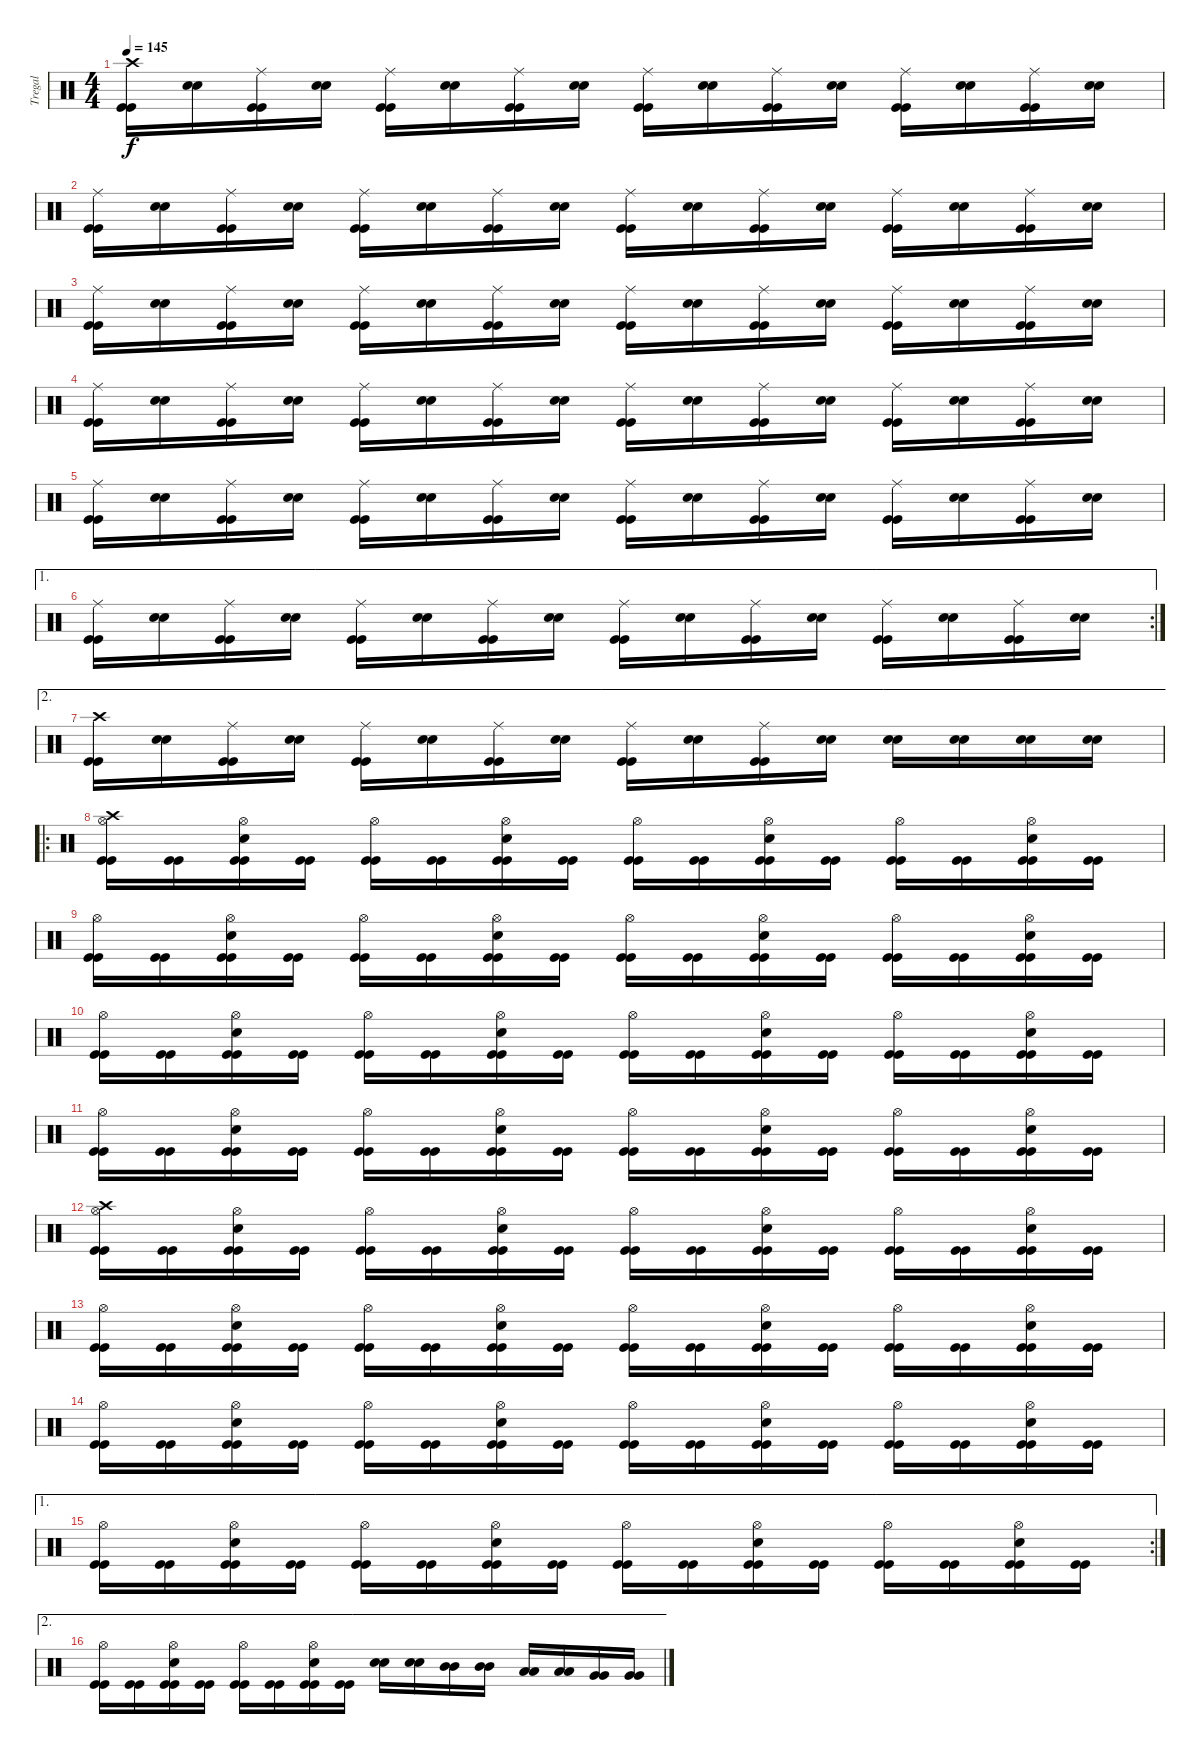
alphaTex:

\track ("Tregal" "Tregal") {instrument percussion}
\staff {score}
\articulation defaults
\ts (4 4)
\tempo 145
\clef neutral
\ks c
("Kick (hit)" "Kick (hit)" "Crash high (hit)").16{dy f} ("Snare (hit) 2" "Snare (hit) 2").16 ("Kick (hit)" "Kick (hit)" "Ride (middle)").16 ("Snare (hit) 2" "Snare (hit) 2").16 ("Kick (hit)" "Kick (hit)" "Ride (middle)").16 ("Snare (hit) 2" "Snare (hit) 2").16 ("Kick (hit)" "Kick (hit)" "Ride (middle)").16 ("Snare (hit) 2" "Snare (hit) 2").16 ("Kick (hit)" "Kick (hit)" "Ride (middle)").16 ("Snare (hit) 2" "Snare (hit) 2").16 ("Kick (hit)" "Kick (hit)" "Ride (middle)").16 ("Snare (hit) 2" "Snare (hit) 2").16 ("Kick (hit)" "Kick (hit)" "Ride (middle)").16 ("Snare (hit) 2" "Snare (hit) 2").16 ("Kick (hit)" "Kick (hit)" "Ride (middle)").16 ("Snare (hit) 2" "Snare (hit) 2").16 |
("Kick (hit)" "Kick (hit)" "Ride (middle)").16 ("Snare (hit) 2" "Snare (hit) 2").16 ("Kick (hit)" "Kick (hit)" "Ride (middle)").16 ("Snare (hit) 2" "Snare (hit) 2").16 ("Kick (hit)" "Kick (hit)" "Ride (middle)").16 ("Snare (hit) 2" "Snare (hit) 2").16 ("Kick (hit)" "Kick (hit)" "Ride (middle)").16 ("Snare (hit) 2" "Snare (hit) 2").16 ("Kick (hit)" "Kick (hit)" "Ride (middle)").16 ("Snare (hit) 2" "Snare (hit) 2").16 ("Kick (hit)" "Kick (hit)" "Ride (middle)").16 ("Snare (hit) 2" "Snare (hit) 2").16 ("Kick (hit)" "Kick (hit)" "Ride (middle)").16 ("Snare (hit) 2" "Snare (hit) 2").16 ("Kick (hit)" "Kick (hit)" "Ride (middle)").16 ("Snare (hit) 2" "Snare (hit) 2").16 |
("Kick (hit)" "Kick (hit)" "Ride (middle)").16 ("Snare (hit) 2" "Snare (hit) 2").16 ("Kick (hit)" "Kick (hit)" "Ride (middle)").16 ("Snare (hit) 2" "Snare (hit) 2").16 ("Kick (hit)" "Kick (hit)" "Ride (middle)").16 ("Snare (hit) 2" "Snare (hit) 2").16 ("Kick (hit)" "Kick (hit)" "Ride (middle)").16 ("Snare (hit) 2" "Snare (hit) 2").16 ("Kick (hit)" "Kick (hit)" "Ride (middle)").16 ("Snare (hit) 2" "Snare (hit) 2").16 ("Kick (hit)" "Kick (hit)" "Ride (middle)").16 ("Snare (hit) 2" "Snare (hit) 2").16 ("Kick (hit)" "Kick (hit)" "Ride (middle)").16 ("Snare (hit) 2" "Snare (hit) 2").16 ("Kick (hit)" "Kick (hit)" "Ride (middle)").16 ("Snare (hit) 2" "Snare (hit) 2").16 |
("Kick (hit)" "Kick (hit)" "Ride (middle)").16 ("Snare (hit) 2" "Snare (hit) 2").16 ("Kick (hit)" "Kick (hit)" "Ride (middle)").16 ("Snare (hit) 2" "Snare (hit) 2").16 ("Kick (hit)" "Kick (hit)" "Ride (middle)").16 ("Snare (hit) 2" "Snare (hit) 2").16 ("Kick (hit)" "Kick (hit)" "Ride (middle)").16 ("Snare (hit) 2" "Snare (hit) 2").16 ("Kick (hit)" "Kick (hit)" "Ride (middle)").16 ("Snare (hit) 2" "Snare (hit) 2").16 ("Kick (hit)" "Kick (hit)" "Ride (middle)").16 ("Snare (hit) 2" "Snare (hit) 2").16 ("Kick (hit)" "Kick (hit)" "Ride (middle)").16 ("Snare (hit) 2" "Snare (hit) 2").16 ("Kick (hit)" "Kick (hit)" "Ride (middle)").16 ("Snare (hit) 2" "Snare (hit) 2").16 |
("Kick (hit)" "Kick (hit)" "Ride (middle)").16 ("Snare (hit) 2" "Snare (hit) 2").16 ("Kick (hit)" "Kick (hit)" "Ride (middle)").16 ("Snare (hit) 2" "Snare (hit) 2").16 ("Kick (hit)" "Kick (hit)" "Ride (middle)").16 ("Snare (hit) 2" "Snare (hit) 2").16 ("Kick (hit)" "Kick (hit)" "Ride (middle)").16 ("Snare (hit) 2" "Snare (hit) 2").16 ("Kick (hit)" "Kick (hit)" "Ride (middle)").16 ("Snare (hit) 2" "Snare (hit) 2").16 ("Kick (hit)" "Kick (hit)" "Ride (middle)").16 ("Snare (hit) 2" "Snare (hit) 2").16 ("Kick (hit)" "Kick (hit)" "Ride (middle)").16 ("Snare (hit) 2" "Snare (hit) 2").16 ("Kick (hit)" "Kick (hit)" "Ride (middle)").16 ("Snare (hit) 2" "Snare (hit) 2").16 |
\ae 1
\rc 2
("Kick (hit)" "Kick (hit)" "Ride (middle)").16 ("Snare (hit) 2" "Snare (hit) 2").16 ("Kick (hit)" "Kick (hit)" "Ride (middle)").16 ("Snare (hit) 2" "Snare (hit) 2").16 ("Kick (hit)" "Kick (hit)" "Ride (middle)").16 ("Snare (hit) 2" "Snare (hit) 2").16 ("Kick (hit)" "Kick (hit)" "Ride (middle)").16 ("Snare (hit) 2" "Snare (hit) 2").16 ("Kick (hit)" "Kick (hit)" "Ride (middle)").16 ("Snare (hit) 2" "Snare (hit) 2").16 ("Kick (hit)" "Kick (hit)" "Ride (middle)").16 ("Snare (hit) 2" "Snare (hit) 2").16 ("Kick (hit)" "Kick (hit)" "Ride (middle)").16 ("Snare (hit) 2" "Snare (hit) 2").16 ("Kick (hit)" "Kick (hit)" "Ride (middle)").16 ("Snare (hit) 2" "Snare (hit) 2").16 |
\ae 2
("Kick (hit)" "Kick (hit)" "Crash high (hit)").16 ("Snare (hit) 2" "Snare (hit) 2").16 ("Kick (hit)" "Kick (hit)" "Ride (middle)").16 ("Snare (hit) 2" "Snare (hit) 2").16 ("Kick (hit)" "Kick (hit)" "Ride (middle)").16 ("Snare (hit) 2" "Snare (hit) 2").16 ("Kick (hit)" "Kick (hit)" "Ride (middle)").16 ("Snare (hit) 2" "Snare (hit) 2").16 ("Kick (hit)" "Kick (hit)" "Ride (middle)").16 ("Snare (hit) 2" "Snare (hit) 2").16 ("Kick (hit)" "Kick (hit)" "Ride (middle)").16 ("Snare (hit) 2" "Snare (hit) 2").16 ("Snare (hit) 2" "Snare (hit) 2").16 ("Snare (hit) 2" "Snare (hit) 2").16 ("Snare (hit) 2" "Snare (hit) 2").16 ("Snare (hit) 2" "Snare (hit) 2").16 |
\ro
("Kick (hit)" "Kick (hit)" "Crash high (hit)" "Hi-Hat (open)").16 ("Kick (hit)" "Kick (hit)").16 ("Kick (hit)" "Kick (hit)" "Hi-Hat (open)" "Snare (hit) 2").16 ("Kick (hit)" "Kick (hit)").16 ("Kick (hit)" "Kick (hit)" "Hi-Hat (open)").16 ("Kick (hit)" "Kick (hit)").16 ("Kick (hit)" "Kick (hit)" "Hi-Hat (open)" "Snare (hit) 2").16 ("Kick (hit)" "Kick (hit)").16 ("Kick (hit)" "Kick (hit)" "Hi-Hat (open)").16 ("Kick (hit)" "Kick (hit)").16 ("Kick (hit)" "Kick (hit)" "Hi-Hat (open)" "Snare (hit) 2").16 ("Kick (hit)" "Kick (hit)").16 ("Kick (hit)" "Kick (hit)" "Hi-Hat (open)").16 ("Kick (hit)" "Kick (hit)").16 ("Kick (hit)" "Kick (hit)" "Hi-Hat (open)" "Snare (hit) 2").16 ("Kick (hit)" "Kick (hit)").16 |
("Kick (hit)" "Kick (hit)" "Hi-Hat (open)").16 ("Kick (hit)" "Kick (hit)").16 ("Kick (hit)" "Kick (hit)" "Hi-Hat (open)" "Snare (hit) 2").16 ("Kick (hit)" "Kick (hit)").16 ("Kick (hit)" "Kick (hit)" "Hi-Hat (open)").16 ("Kick (hit)" "Kick (hit)").16 ("Kick (hit)" "Kick (hit)" "Hi-Hat (open)" "Snare (hit) 2").16 ("Kick (hit)" "Kick (hit)").16 ("Kick (hit)" "Kick (hit)" "Hi-Hat (open)").16 ("Kick (hit)" "Kick (hit)").16 ("Kick (hit)" "Kick (hit)" "Hi-Hat (open)" "Snare (hit) 2").16 ("Kick (hit)" "Kick (hit)").16 ("Kick (hit)" "Kick (hit)" "Hi-Hat (open)").16 ("Kick (hit)" "Kick (hit)").16 ("Kick (hit)" "Kick (hit)" "Hi-Hat (open)" "Snare (hit) 2").16 ("Kick (hit)" "Kick (hit)").16 |
("Kick (hit)" "Kick (hit)" "Hi-Hat (open)").16 ("Kick (hit)" "Kick (hit)").16 ("Kick (hit)" "Kick (hit)" "Hi-Hat (open)" "Snare (hit) 2").16 ("Kick (hit)" "Kick (hit)").16 ("Kick (hit)" "Kick (hit)" "Hi-Hat (open)").16 ("Kick (hit)" "Kick (hit)").16 ("Kick (hit)" "Kick (hit)" "Hi-Hat (open)" "Snare (hit) 2").16 ("Kick (hit)" "Kick (hit)").16 ("Kick (hit)" "Kick (hit)" "Hi-Hat (open)").16 ("Kick (hit)" "Kick (hit)").16 ("Kick (hit)" "Kick (hit)" "Hi-Hat (open)" "Snare (hit) 2").16 ("Kick (hit)" "Kick (hit)").16 ("Kick (hit)" "Kick (hit)" "Hi-Hat (open)").16 ("Kick (hit)" "Kick (hit)").16 ("Kick (hit)" "Kick (hit)" "Hi-Hat (open)" "Snare (hit) 2").16 ("Kick (hit)" "Kick (hit)").16 |
("Kick (hit)" "Kick (hit)" "Hi-Hat (open)").16 ("Kick (hit)" "Kick (hit)").16 ("Kick (hit)" "Kick (hit)" "Hi-Hat (open)" "Snare (hit) 2").16 ("Kick (hit)" "Kick (hit)").16 ("Kick (hit)" "Kick (hit)" "Hi-Hat (open)").16 ("Kick (hit)" "Kick (hit)").16 ("Kick (hit)" "Kick (hit)" "Hi-Hat (open)" "Snare (hit) 2").16 ("Kick (hit)" "Kick (hit)").16 ("Kick (hit)" "Kick (hit)" "Hi-Hat (open)").16 ("Kick (hit)" "Kick (hit)").16 ("Kick (hit)" "Kick (hit)" "Hi-Hat (open)" "Snare (hit) 2").16 ("Kick (hit)" "Kick (hit)").16 ("Kick (hit)" "Kick (hit)" "Hi-Hat (open)").16 ("Kick (hit)" "Kick (hit)").16 ("Kick (hit)" "Kick (hit)" "Hi-Hat (open)" "Snare (hit) 2").16 ("Kick (hit)" "Kick (hit)").16 |
("Kick (hit)" "Kick (hit)" "Hi-Hat (open)" "Crash high (hit)").16 ("Kick (hit)" "Kick (hit)").16 ("Kick (hit)" "Kick (hit)" "Hi-Hat (open)" "Snare (hit) 2").16 ("Kick (hit)" "Kick (hit)").16 ("Kick (hit)" "Kick (hit)" "Hi-Hat (open)").16 ("Kick (hit)" "Kick (hit)").16 ("Kick (hit)" "Kick (hit)" "Hi-Hat (open)" "Snare (hit) 2").16 ("Kick (hit)" "Kick (hit)").16 ("Kick (hit)" "Kick (hit)" "Hi-Hat (open)").16 ("Kick (hit)" "Kick (hit)").16 ("Kick (hit)" "Kick (hit)" "Hi-Hat (open)" "Snare (hit) 2").16 ("Kick (hit)" "Kick (hit)").16 ("Kick (hit)" "Kick (hit)" "Hi-Hat (open)").16 ("Kick (hit)" "Kick (hit)").16 ("Kick (hit)" "Kick (hit)" "Hi-Hat (open)" "Snare (hit) 2").16 ("Kick (hit)" "Kick (hit)").16 |
("Kick (hit)" "Kick (hit)" "Hi-Hat (open)").16 ("Kick (hit)" "Kick (hit)").16 ("Kick (hit)" "Kick (hit)" "Hi-Hat (open)" "Snare (hit) 2").16 ("Kick (hit)" "Kick (hit)").16 ("Kick (hit)" "Kick (hit)" "Hi-Hat (open)").16 ("Kick (hit)" "Kick (hit)").16 ("Kick (hit)" "Kick (hit)" "Hi-Hat (open)" "Snare (hit) 2").16 ("Kick (hit)" "Kick (hit)").16 ("Kick (hit)" "Kick (hit)" "Hi-Hat (open)").16 ("Kick (hit)" "Kick (hit)").16 ("Kick (hit)" "Kick (hit)" "Hi-Hat (open)" "Snare (hit) 2").16 ("Kick (hit)" "Kick (hit)").16 ("Kick (hit)" "Kick (hit)" "Hi-Hat (open)").16 ("Kick (hit)" "Kick (hit)").16 ("Kick (hit)" "Kick (hit)" "Hi-Hat (open)" "Snare (hit) 2").16 ("Kick (hit)" "Kick (hit)").16 |
("Kick (hit)" "Kick (hit)" "Hi-Hat (open)").16 ("Kick (hit)" "Kick (hit)").16 ("Kick (hit)" "Kick (hit)" "Hi-Hat (open)" "Snare (hit) 2").16 ("Kick (hit)" "Kick (hit)").16 ("Kick (hit)" "Kick (hit)" "Hi-Hat (open)").16 ("Kick (hit)" "Kick (hit)").16 ("Kick (hit)" "Kick (hit)" "Hi-Hat (open)" "Snare (hit) 2").16 ("Kick (hit)" "Kick (hit)").16 ("Kick (hit)" "Kick (hit)" "Hi-Hat (open)").16 ("Kick (hit)" "Kick (hit)").16 ("Kick (hit)" "Kick (hit)" "Hi-Hat (open)" "Snare (hit) 2").16 ("Kick (hit)" "Kick (hit)").16 ("Kick (hit)" "Kick (hit)" "Hi-Hat (open)").16 ("Kick (hit)" "Kick (hit)").16 ("Kick (hit)" "Kick (hit)" "Hi-Hat (open)" "Snare (hit) 2").16 ("Kick (hit)" "Kick (hit)").16 |
\ae 1
\rc 2
("Kick (hit)" "Kick (hit)" "Hi-Hat (open)").16 ("Kick (hit)" "Kick (hit)").16 ("Kick (hit)" "Kick (hit)" "Hi-Hat (open)" "Snare (hit) 2").16 ("Kick (hit)" "Kick (hit)").16 ("Kick (hit)" "Kick (hit)" "Hi-Hat (open)").16 ("Kick (hit)" "Kick (hit)").16 ("Kick (hit)" "Kick (hit)" "Hi-Hat (open)" "Snare (hit) 2").16 ("Kick (hit)" "Kick (hit)").16 ("Kick (hit)" "Kick (hit)" "Hi-Hat (open)").16 ("Kick (hit)" "Kick (hit)").16 ("Kick (hit)" "Kick (hit)" "Hi-Hat (open)" "Snare (hit) 2").16 ("Kick (hit)" "Kick (hit)").16 ("Kick (hit)" "Kick (hit)" "Hi-Hat (open)").16 ("Kick (hit)" "Kick (hit)").16 ("Kick (hit)" "Kick (hit)" "Hi-Hat (open)" "Snare (hit) 2").16 ("Kick (hit)" "Kick (hit)").16 |
\ae 2
("Kick (hit)" "Kick (hit)" "Hi-Hat (open)").16 ("Kick (hit)" "Kick (hit)").16 ("Kick (hit)" "Kick (hit)" "Hi-Hat (open)" "Snare (hit) 2").16 ("Kick (hit)" "Kick (hit)").16 ("Kick (hit)" "Kick (hit)" "Hi-Hat (open)").16 ("Kick (hit)" "Kick (hit)").16 ("Kick (hit)" "Kick (hit)" "Hi-Hat (open)" "Snare (hit) 2").16 ("Kick (hit)" "Kick (hit)").16 ("Snare (hit) 2" "Snare (hit) 2").16 ("Snare (hit) 2" "Snare (hit) 2").16 ("Mid Tom (hit)" "Mid Tom (hit)").16 ("Mid Tom (hit)" "Mid Tom (hit)").16 ("Low Tom (hit)" "Low Tom (hit)").16 ("Low Tom (hit)" "Low Tom (hit)").16 ("Very Low Tom (hit)" "Very Low Tom (hit)").16 ("Very Low Tom (hit)" "Very Low Tom (hit)").16
